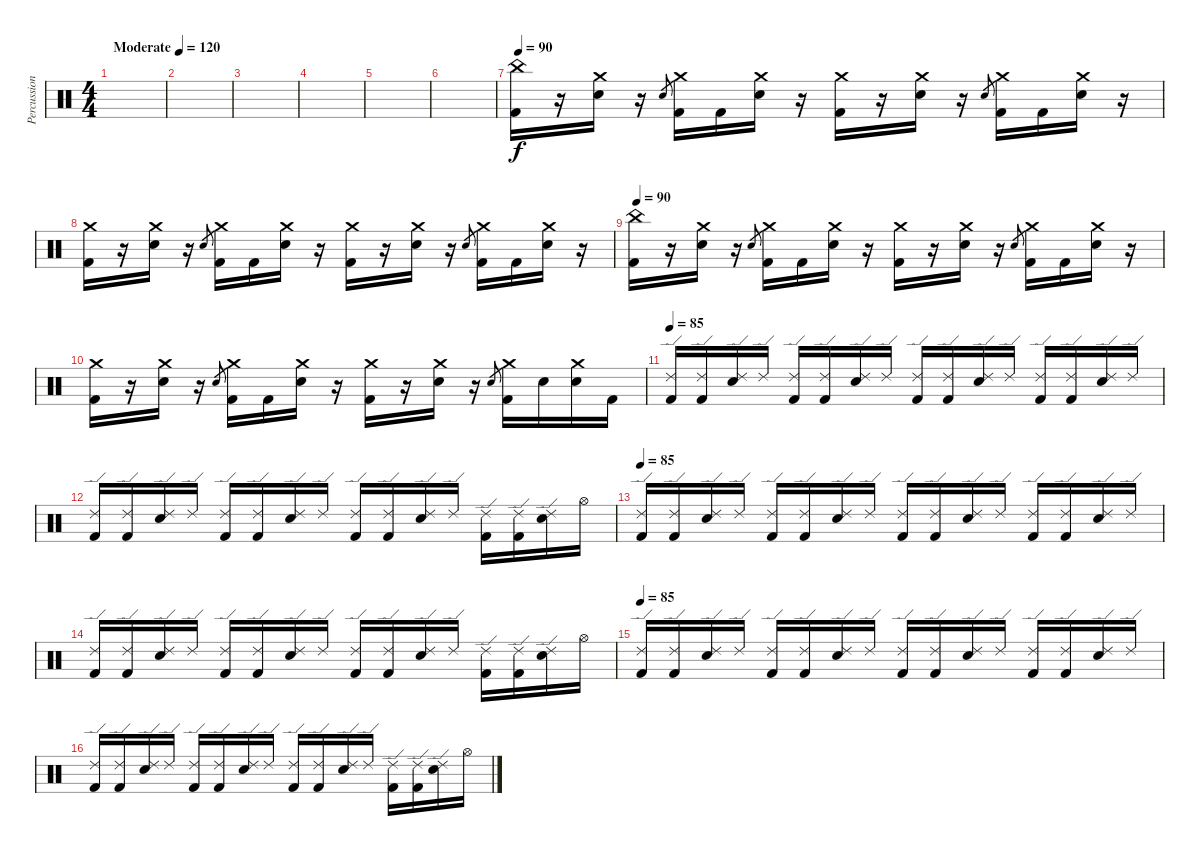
\track ("Percussioni" "Percussion") {instrument percussion}
\staff {score}
\articulation defaults
\ts (4 4)
\tempo (120 "Moderate")
\clef neutral
\ks c
|
|
|
|
|
|
\tempo 90
("China (hit)" "Kick (hit) 2").16 r.16 ("Crash medium (hit)" "Snare (hit) 2").16 r.16 "Snare (hit) 2".8{gr} ("Crash medium (hit)" "Kick (hit) 2").16 "Kick (hit) 2".16 ("Crash medium (hit)" "Snare (hit) 2").16 r.16 ("Crash medium (hit)" "Kick (hit) 2").16 r.16 ("Crash medium (hit)" "Snare (hit) 2").16 r.16 "Snare (hit) 2".8{gr} ("Crash medium (hit)" "Kick (hit) 2").16 "Kick (hit) 2".16 ("Crash medium (hit)" "Snare (hit) 2").16 r.16 |
("Crash medium (hit)" "Kick (hit) 2").16 r.16 ("Crash medium (hit)" "Snare (hit) 2").16 r.16 "Snare (hit) 2".8{gr} ("Crash medium (hit)" "Kick (hit) 2").16 "Kick (hit) 2".16 ("Crash medium (hit)" "Snare (hit) 2").16 r.16 ("Crash medium (hit)" "Kick (hit) 2").16 r.16 ("Crash medium (hit)" "Snare (hit) 2").16 r.16 "Snare (hit) 2".8{gr} ("Crash medium (hit)" "Kick (hit) 2").16 "Kick (hit) 2".16 ("Crash medium (hit)" "Snare (hit) 2").16 r.16 |
\tempo 90
("China (hit)" "Kick (hit) 2").16 r.16 ("Crash medium (hit)" "Snare (hit) 2").16 r.16 "Snare (hit) 2".8{gr} ("Crash medium (hit)" "Kick (hit) 2").16 "Kick (hit) 2".16 ("Crash medium (hit)" "Snare (hit) 2").16 r.16 ("Crash medium (hit)" "Kick (hit) 2").16 r.16 ("Crash medium (hit)" "Snare (hit) 2").16 r.16 "Snare (hit) 2".8{gr} ("Crash medium (hit)" "Kick (hit) 2").16 "Kick (hit) 2".16 ("Crash medium (hit)" "Snare (hit) 2").16 r.16 |
("Crash medium (hit)" "Kick (hit) 2").16 r.16 ("Crash medium (hit)" "Snare (hit) 2").16 r.16 "Snare (hit) 2".8{gr} ("Crash medium (hit)" "Kick (hit) 2").16 "Kick (hit) 2".16 ("Crash medium (hit)" "Snare (hit) 2").16 r.16 ("Crash medium (hit)" "Kick (hit) 2").16 r.16 ("Crash medium (hit)" "Snare (hit) 2").16 r.16 "Snare (hit) 2".8{gr} ("Crash medium (hit)" "Kick (hit) 2").16 "Snare (hit) 2".16 ("Crash medium (hit)" "Snare (hit) 2").16 "Kick (hit) 2".16 |
\tempo 85
("Ride (edge) 2" "Kick (hit) 2").16 ("Ride (edge) 2" "Kick (hit) 2").16 ("Ride (edge) 2" "Snare (hit) 2").16 "Ride (edge) 2".16 ("Ride (edge) 2" "Kick (hit) 2").16 ("Ride (edge) 2" "Kick (hit) 2").16 ("Ride (edge) 2" "Snare (hit) 2").16 "Ride (edge) 2".16 ("Ride (edge) 2" "Kick (hit) 2").16 ("Ride (edge) 2" "Kick (hit) 2").16 ("Ride (edge) 2" "Snare (hit) 2").16 "Ride (edge) 2".16 ("Ride (edge) 2" "Kick (hit) 2").16 ("Ride (edge) 2" "Kick (hit) 2").16 ("Ride (edge) 2" "Snare (hit) 2").16 "Ride (edge) 2".16 |
("Ride (edge) 2" "Kick (hit) 2").16 ("Ride (edge) 2" "Kick (hit) 2").16 ("Ride (edge) 2" "Snare (hit) 2").16 "Ride (edge) 2".16 ("Ride (edge) 2" "Kick (hit) 2").16 ("Ride (edge) 2" "Kick (hit) 2").16 ("Ride (edge) 2" "Snare (hit) 2").16 "Ride (edge) 2".16 ("Ride (edge) 2" "Kick (hit) 2").16 ("Ride (edge) 2" "Kick (hit) 2").16 ("Ride (edge) 2" "Snare (hit) 2").16 "Ride (edge) 2".16 ("Ride (edge) 2" "Kick (hit) 2").16 ("Ride (edge) 2" "Kick (hit) 2").16 ("Ride (edge) 2" "Snare (hit) 2").16 "Hi-Hat (open)".16 |
\tempo 85
("Ride (edge) 2" "Kick (hit) 2").16 ("Ride (edge) 2" "Kick (hit) 2").16 ("Ride (edge) 2" "Snare (hit) 2").16 "Ride (edge) 2".16 ("Ride (edge) 2" "Kick (hit) 2").16 ("Ride (edge) 2" "Kick (hit) 2").16 ("Ride (edge) 2" "Snare (hit) 2").16 "Ride (edge) 2".16 ("Ride (edge) 2" "Kick (hit) 2").16 ("Ride (edge) 2" "Kick (hit) 2").16 ("Ride (edge) 2" "Snare (hit) 2").16 "Ride (edge) 2".16 ("Ride (edge) 2" "Kick (hit) 2").16 ("Ride (edge) 2" "Kick (hit) 2").16 ("Ride (edge) 2" "Snare (hit) 2").16 "Ride (edge) 2".16 |
("Ride (edge) 2" "Kick (hit) 2").16 ("Ride (edge) 2" "Kick (hit) 2").16 ("Ride (edge) 2" "Snare (hit) 2").16 "Ride (edge) 2".16 ("Ride (edge) 2" "Kick (hit) 2").16 ("Ride (edge) 2" "Kick (hit) 2").16 ("Ride (edge) 2" "Snare (hit) 2").16 "Ride (edge) 2".16 ("Ride (edge) 2" "Kick (hit) 2").16 ("Ride (edge) 2" "Kick (hit) 2").16 ("Ride (edge) 2" "Snare (hit) 2").16 "Ride (edge) 2".16 ("Ride (edge) 2" "Kick (hit) 2").16 ("Ride (edge) 2" "Kick (hit) 2").16 ("Ride (edge) 2" "Snare (hit) 2").16 "Hi-Hat (open)".16 |
\tempo 85
("Ride (edge) 2" "Kick (hit) 2").16 ("Ride (edge) 2" "Kick (hit) 2").16 ("Ride (edge) 2" "Snare (hit) 2").16 "Ride (edge) 2".16 ("Ride (edge) 2" "Kick (hit) 2").16 ("Ride (edge) 2" "Kick (hit) 2").16 ("Ride (edge) 2" "Snare (hit) 2").16 "Ride (edge) 2".16 ("Ride (edge) 2" "Kick (hit) 2").16 ("Ride (edge) 2" "Kick (hit) 2").16 ("Ride (edge) 2" "Snare (hit) 2").16 "Ride (edge) 2".16 ("Ride (edge) 2" "Kick (hit) 2").16 ("Ride (edge) 2" "Kick (hit) 2").16 ("Ride (edge) 2" "Snare (hit) 2").16 "Ride (edge) 2".16 |
("Ride (edge) 2" "Kick (hit) 2").16 ("Ride (edge) 2" "Kick (hit) 2").16 ("Ride (edge) 2" "Snare (hit) 2").16 "Ride (edge) 2".16 ("Ride (edge) 2" "Kick (hit) 2").16 ("Ride (edge) 2" "Kick (hit) 2").16 ("Ride (edge) 2" "Snare (hit) 2").16 "Ride (edge) 2".16 ("Ride (edge) 2" "Kick (hit) 2").16 ("Ride (edge) 2" "Kick (hit) 2").16 ("Ride (edge) 2" "Snare (hit) 2").16 "Ride (edge) 2".16 ("Ride (edge) 2" "Kick (hit) 2").16 ("Ride (edge) 2" "Kick (hit) 2").16 ("Ride (edge) 2" "Snare (hit) 2").16 "Hi-Hat (open)".16
